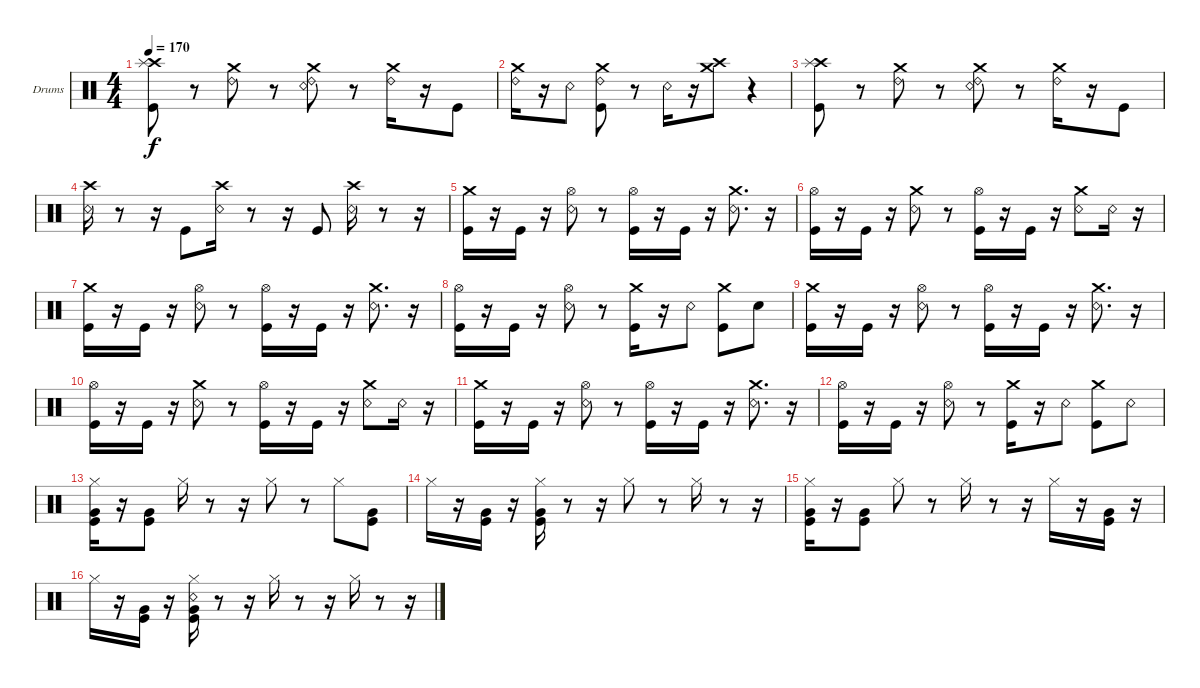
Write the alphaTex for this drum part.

\bracketExtendMode groupsimilarinstruments
\firstSystemTrackNameOrientation horizontal
\otherSystemsTrackNameOrientation horizontal
\track ("Drumkit" "Drums") {instrument percussion}
\staff {score}
\articulation defaults
\ts (4 4)
\tempo 170
\clef neutral
\ks c
("Kick (hit)" "Crash high (hit)" "Splash (hit)").8{dy f} r.8 ("Ride (bell) 2" "Crash medium (hit)").8 r.8 ("Snare (rim shot)" "Ride (bell) 2" "Crash medium (hit)").8 r.8 ("Ride (bell) 2" "Crash medium (hit)").16 r.16 "Kick (hit)".8 |
("Ride (bell) 2" "Crash medium (hit)").16 r.16 "Snare (rim shot)".8 ("Kick (hit)" "Ride (bell) 2" "Crash medium (hit)").8 r.8 "Snare (rim shot)".16 r.16 ("Crash medium (hit)" "Crash high (hit)").8 r.4 |
("Kick (hit)" "Crash high (hit)" "Splash (hit)").8 r.8 ("Ride (bell) 2" "Crash medium (hit)").8 r.8 ("Snare (rim shot)" "Ride (bell) 2" "Crash medium (hit)").8 r.8 ("Ride (bell) 2" "Crash medium (hit)").16 r.16 "Kick (hit)".8 |
("Snare (rim shot)" "Crash high (hit)").16 r.8 r.16 "Kick (hit)".8 ("Snare (rim shot)" "Crash high (hit)").16 r.8 r.16 "Kick (hit)".8 ("Snare (rim shot)" "Crash high (hit)").16 r.8 r.16 |
("Kick (hit)" "Crash medium (hit)").16 r.16 "Kick (hit)".16 r.16 ("Snare (rim shot)" "Hi-Hat (open)").8 r.8 ("Kick (hit)" "Hi-Hat (open)").16 r.16 "Kick (hit)".16 r.16 ("Snare (rim shot)" "Crash medium (hit)").8{d} r.16 |
("Kick (hit)" "Hi-Hat (open)").16 r.16 "Kick (hit)".16 r.16 ("Snare (rim shot)" "Crash medium (hit)").8 r.8 ("Kick (hit)" "Hi-Hat (open)").16 r.16 "Kick (hit)".16 r.16 ("Snare (rim shot)" "Crash medium (hit)").8 "Snare (rim shot)".16 r.16 |
("Kick (hit)" "Crash medium (hit)").16 r.16 "Kick (hit)".16 r.16 ("Snare (rim shot)" "Hi-Hat (open)").8 r.8 ("Kick (hit)" "Hi-Hat (open)").16 r.16 "Kick (hit)".16 r.16 ("Snare (rim shot)" "Crash medium (hit)").8{d} r.16 |
("Kick (hit)" "Hi-Hat (open)").16 r.16 "Kick (hit)".16 r.16 ("Snare (rim shot)" "Hi-Hat (open)").8 r.8 ("Kick (hit)" "Crash medium (hit)").16 r.16 "Snare (rim shot)".8 ("Kick (hit)" "Crash medium (hit)").8 "Snare (hit) 2".8 |
("Kick (hit)" "Crash medium (hit)").16 r.16 "Kick (hit)".16 r.16 ("Snare (rim shot)" "Hi-Hat (open)").8 r.8 ("Kick (hit)" "Hi-Hat (open)").16 r.16 "Kick (hit)".16 r.16 ("Snare (rim shot)" "Crash medium (hit)").8{d} r.16 |
("Kick (hit)" "Hi-Hat (open)").16 r.16 "Kick (hit)".16 r.16 ("Snare (rim shot)" "Crash medium (hit)").8 r.8 ("Kick (hit)" "Hi-Hat (open)").16 r.16 "Kick (hit)".16 r.16 ("Snare (rim shot)" "Crash medium (hit)").8 "Snare (rim shot)".16 r.16 |
("Kick (hit)" "Crash medium (hit)").16 r.16 "Kick (hit)".16 r.16 ("Snare (rim shot)" "Hi-Hat (open)").8 r.8 ("Kick (hit)" "Hi-Hat (open)").16 r.16 "Kick (hit)".16 r.16 ("Snare (rim shot)" "Crash medium (hit)").8{d} r.16 |
("Kick (hit)" "Hi-Hat (open)").16 r.16 "Kick (hit)".16 r.16 ("Snare (rim shot)" "Hi-Hat (open)").8 r.8 ("Kick (hit)" "Crash medium (hit)").16 r.16 "Snare (rim shot)".8 ("Kick (hit)" "Crash medium (hit)").8 "Snare (rim shot)".8 |
("Kick (hit)" "Very Low Tom (hit)" "Hi-Hat (closed)").16 r.16 ("Kick (hit)" "Very Low Tom (hit)").8 "Hi-Hat (closed)".16 r.8 r.16 "Hi-Hat (closed)".8 r.8 "Hi-Hat (closed)".8 ("Kick (hit)" "Very Low Tom (hit)").8 |
"Hi-Hat (closed)".16 r.16 ("Kick (hit)" "Very Low Tom (hit)").16 r.16 ("Kick (hit)" "Very Low Tom (hit)" "Hi-Hat (closed)").16 r.8 r.16 "Hi-Hat (closed)".8 r.8 "Hi-Hat (closed)".16 r.8 r.16 |
("Kick (hit)" "Very Low Tom (hit)" "Hi-Hat (closed)").16 r.16 ("Kick (hit)" "Very Low Tom (hit)").8 "Hi-Hat (closed)".8 r.8 "Hi-Hat (closed)".16 r.8 r.16 "Hi-Hat (closed)".16 r.16 ("Kick (hit)" "Very Low Tom (hit)").16 r.16 |
"Hi-Hat (closed)".16 r.16 ("Kick (hit)" "Very Low Tom (hit)").16 r.16 ("Kick (hit)" "Snare (rim shot)" "Very Low Tom (hit)" "Hi-Hat (closed)").16 r.8 r.16 "Hi-Hat (closed)".16 r.8 r.16 "Hi-Hat (closed)".16 r.8 r.16
